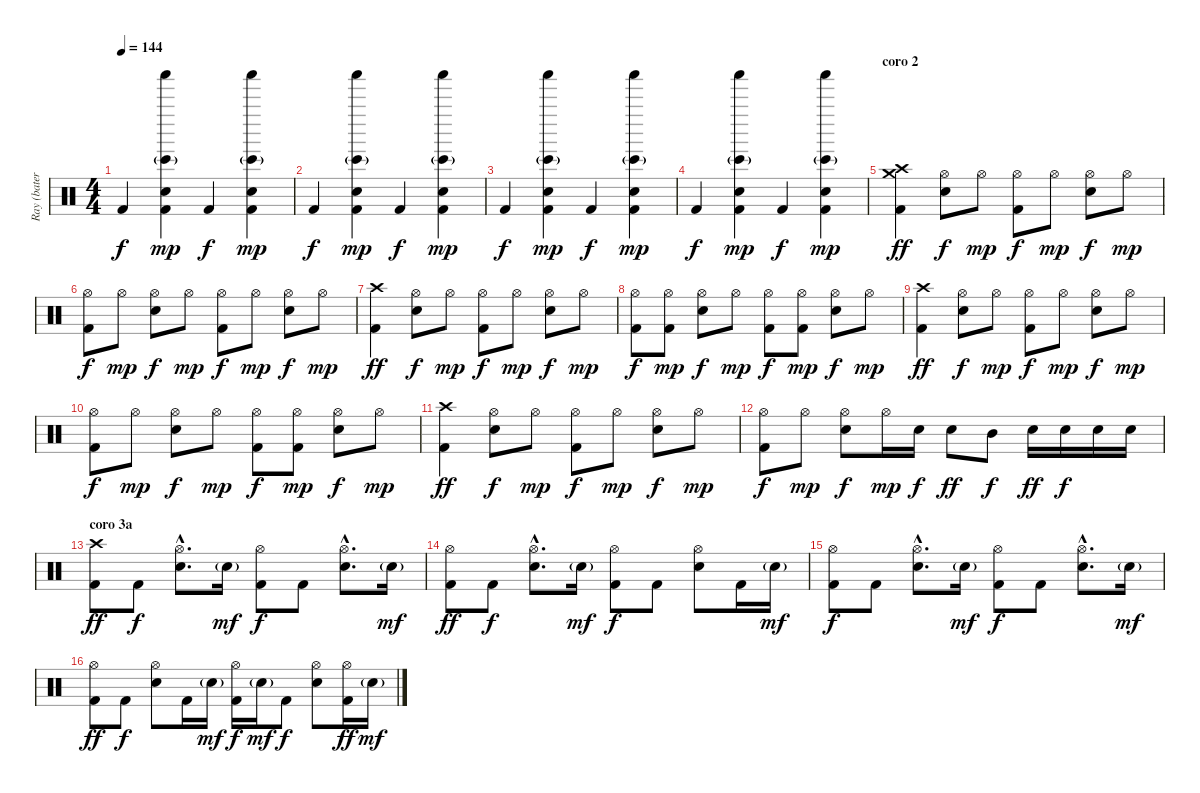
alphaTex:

\track ("Ray (batería)" "Ray (bater") {instrument percussion}
\staff {score}
\articulation defaults
\ts (4 4)
\tempo 144
\clef neutral
\ks c "Kick (hit) 2".4{dy f}
("Shaker (hit)" "Hand Clap (hit)" "Bongo High (hit)"{g} "Kick (hit) 2").4{dy mp} "Kick (hit) 2".4{dy f} ("Shaker (hit)" "Hand Clap (hit)" "Bongo High (hit)"{g} "Kick (hit) 2").4{dy mp} |
"Kick (hit) 2".4{dy f} ("Shaker (hit)" "Hand Clap (hit)" "Bongo High (hit)"{g} "Kick (hit) 2").4{dy mp} "Kick (hit) 2".4{dy f} ("Shaker (hit)" "Hand Clap (hit)" "Bongo High (hit)"{g} "Kick (hit) 2").4{dy mp} |
"Kick (hit) 2".4{dy f} ("Shaker (hit)" "Hand Clap (hit)" "Bongo High (hit)"{g} "Kick (hit) 2").4{dy mp} "Kick (hit) 2".4{dy f} ("Shaker (hit)" "Hand Clap (hit)" "Bongo High (hit)"{g} "Kick (hit) 2").4{dy mp} |
"Kick (hit) 2".4{dy f} ("Shaker (hit)" "Hand Clap (hit)" "Bongo High (hit)"{g} "Kick (hit) 2").4{dy mp} "Kick (hit) 2".4{dy f} ("Shaker (hit)" "Hand Clap (hit)" "Bongo High (hit)"{g} "Kick (hit) 2").4{dy mp} |
\section ("" "coro 2")
("Crash high (hit)" "Crash medium (hit)" "Kick (hit) 2").4{dy ff} ("Hi-Hat (open)" "Snare (hit) 2").8{dy f} "Hi-Hat (open)".8{dy mp} ("Hi-Hat (open)" "Kick (hit) 2").8{dy f} "Hi-Hat (open)".8{dy mp} ("Hi-Hat (open)" "Snare (hit) 2").8{dy f} "Hi-Hat (open)".8{dy mp} |
("Hi-Hat (open)" "Kick (hit) 2").8{dy f} "Hi-Hat (open)".8{dy mp} ("Hi-Hat (open)" "Snare (hit) 2").8{dy f} "Hi-Hat (open)".8{dy mp} ("Hi-Hat (open)" "Kick (hit) 2").8{dy f} "Hi-Hat (open)".8{dy mp} ("Hi-Hat (open)" "Snare (hit) 2").8{dy f} "Hi-Hat (open)".8{dy mp} |
("Crash high (hit)" "Kick (hit) 2").4{dy ff} ("Hi-Hat (open)" "Snare (hit) 2").8{dy f} "Hi-Hat (open)".8{dy mp} ("Hi-Hat (open)" "Kick (hit) 2").8{dy f} "Hi-Hat (open)".8{dy mp} ("Hi-Hat (open)" "Snare (hit) 2").8{dy f} "Hi-Hat (open)".8{dy mp} |
("Hi-Hat (open)" "Kick (hit) 2").8{dy f} ("Hi-Hat (open)" "Kick (hit) 2").8{dy mp} ("Hi-Hat (open)" "Snare (hit) 2").8{dy f} "Hi-Hat (open)".8{dy mp} ("Hi-Hat (open)" "Kick (hit) 2").8{dy f} ("Hi-Hat (open)" "Kick (hit) 2").8{dy mp} ("Hi-Hat (open)" "Snare (hit) 2").8{dy f} "Hi-Hat (open)".8{dy mp} |
("Crash high (hit)" "Kick (hit) 2").4{dy ff} ("Hi-Hat (open)" "Snare (hit) 2").8{dy f} "Hi-Hat (open)".8{dy mp} ("Hi-Hat (open)" "Kick (hit) 2").8{dy f} "Hi-Hat (open)".8{dy mp} ("Hi-Hat (open)" "Snare (hit) 2").8{dy f} "Hi-Hat (open)".8{dy mp} |
("Hi-Hat (open)" "Kick (hit) 2").8{dy f} "Hi-Hat (open)".8{dy mp} ("Hi-Hat (open)" "Snare (hit) 2").8{dy f} "Hi-Hat (open)".8{dy mp} ("Hi-Hat (open)" "Kick (hit) 2").8{dy f} ("Hi-Hat (open)" "Kick (hit) 2").8{dy mp} ("Hi-Hat (open)" "Snare (hit) 2").8{dy f} "Hi-Hat (open)".8{dy mp} |
("Crash high (hit)" "Kick (hit) 2").4{dy ff} ("Hi-Hat (open)" "Snare (hit) 2").8{dy f} "Hi-Hat (open)".8{dy mp} ("Hi-Hat (open)" "Kick (hit) 2").8{dy f} "Hi-Hat (open)".8{dy mp} ("Hi-Hat (open)" "Snare (hit) 2").8{dy f} "Hi-Hat (open)".8{dy mp} |
("Hi-Hat (open)" "Kick (hit) 2").8{dy f} "Hi-Hat (open)".8{dy mp} ("Hi-Hat (open)" "Snare (hit) 2").8{dy f} "Hi-Hat (open)".16{dy mp} "Snare (hit) 2".16{dy f} "Snare (hit) 2".8{dy ff} "Mid Tom (hit)".8{dy f} "Snare (hit) 2".16{dy ff} "Snare (hit) 2".16{dy f} "Snare (hit) 2".16 "Snare (hit) 2".16 |
\section ("" "coro 3a")
("Crash high (hit)" "Kick (hit) 2").8{dy ff} "Kick (hit) 2".8{dy f} ("Hi-Hat (open)"{hac} "Snare (hit) 2"{hac}).8{d} "Snare (hit) 2"{g}.16{dy mf} ("Hi-Hat (open)" "Kick (hit) 2").8{dy f} "Kick (hit) 2".8 ("Hi-Hat (open)"{hac} "Snare (hit) 2"{hac}).8{d} "Snare (hit) 2"{g}.16{dy mf} |
("Hi-Hat (open)" "Kick (hit) 2").8{dy ff} "Kick (hit) 2".8{dy f} ("Hi-Hat (open)"{hac} "Snare (hit) 2"{hac}).8{d} "Snare (hit) 2"{g}.16{dy mf} ("Hi-Hat (open)" "Kick (hit) 2").8{dy f} "Kick (hit) 2".8 ("Hi-Hat (open)" "Snare (hit) 2").8 "Kick (hit) 2".16 "Snare (hit) 2"{g}.16{dy mf} |
("Hi-Hat (open)" "Kick (hit) 2").8{dy f} "Kick (hit) 2".8 ("Hi-Hat (open)"{hac} "Snare (hit) 2"{hac}).8{d} "Snare (hit) 2"{g}.16{dy mf} ("Hi-Hat (open)" "Kick (hit) 2").8{dy f} "Kick (hit) 2".8 ("Hi-Hat (open)"{hac} "Snare (hit) 2"{hac}).8{d} "Snare (hit) 2"{g}.16{dy mf} |
("Hi-Hat (open)" "Kick (hit) 2").8{dy ff} "Kick (hit) 2".8{dy f} ("Hi-Hat (open)" "Snare (hit) 2").8 "Kick (hit) 2".16 "Snare (hit) 2"{g}.16{dy mf} ("Hi-Hat (open)" "Kick (hit) 2").16{dy f} "Snare (hit) 2"{g}.16{dy mf} "Kick (hit) 2".8{dy f} ("Hi-Hat (open)" "Snare (hit) 2").8 ("Hi-Hat (open)" "Kick (hit) 2").16{dy ff} "Snare (hit) 2"{g}.16{dy mf}
